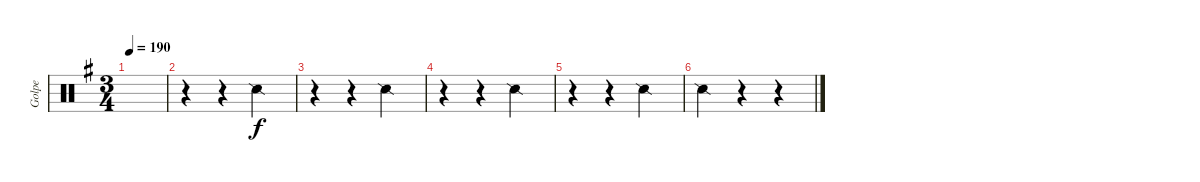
\track ("Golpe" "Golpe") {instrument percussion}
\staff {score}
\articulation defaults
\ts (3 4)
\tempo 190
\clef neutral
\ks eminor
|
r.4 r.4 "Snare (side stick) 2".4 |
r.4 r.4 "Snare (side stick) 2".4 |
r.4 r.4 "Snare (side stick) 2".4 |
r.4 r.4 "Snare (side stick) 2".4 |
"Snare (side stick) 2".4 r.4 r.4
